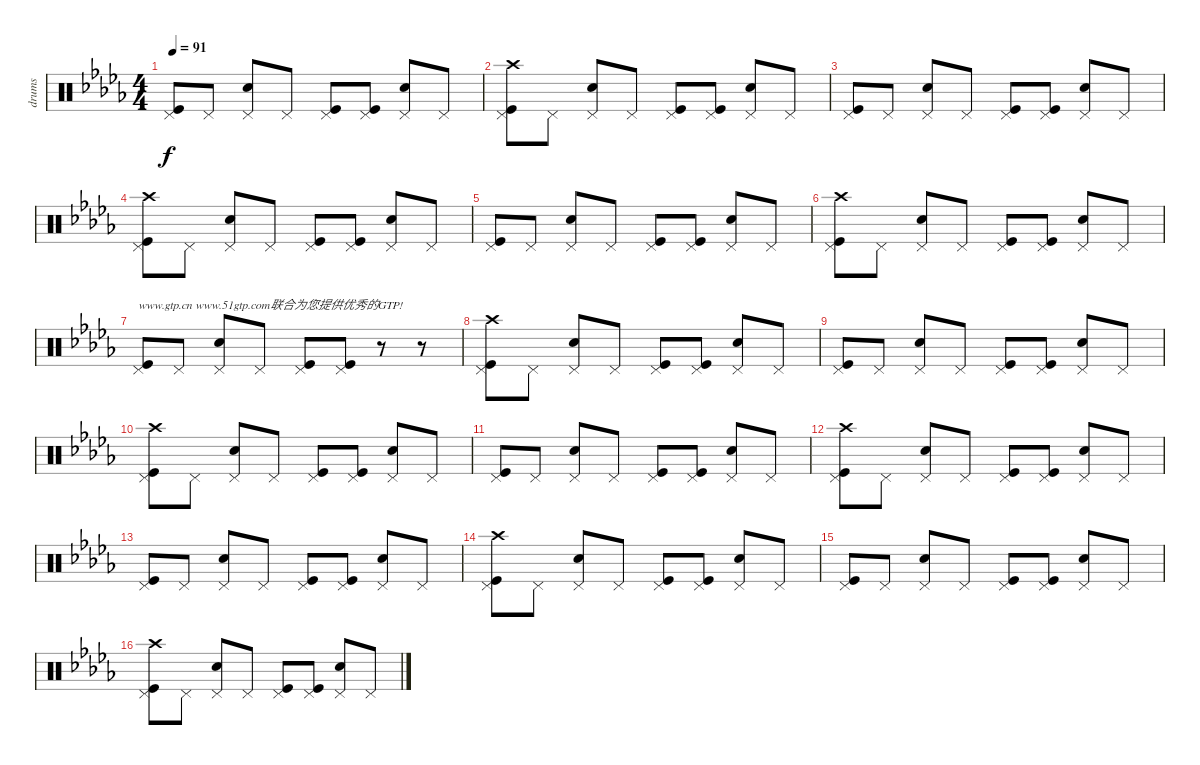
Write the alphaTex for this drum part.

\track ("drums" "drums") {instrument percussion}
\staff {score}
\articulation defaults
\ts (4 4)
\tempo 91
\clef neutral
\ks db
("Pedal Hi-Hat (hit)" "Kick (hit)").8{dy f} "Pedal Hi-Hat (hit)".8 ("Pedal Hi-Hat (hit)" "Snare (hit) 2").8 "Pedal Hi-Hat (hit)".8 ("Pedal Hi-Hat (hit)" "Kick (hit)").8 ("Pedal Hi-Hat (hit)" "Kick (hit)").8 ("Pedal Hi-Hat (hit)" "Snare (hit) 2").8 "Pedal Hi-Hat (hit)".8 |
("Crash high (hit)" "Pedal Hi-Hat (hit)" "Kick (hit)").8 "Pedal Hi-Hat (hit)".8 ("Pedal Hi-Hat (hit)" "Electric Snare (hit)").8 "Pedal Hi-Hat (hit)".8 ("Pedal Hi-Hat (hit)" "Kick (hit)").8 ("Pedal Hi-Hat (hit)" "Kick (hit)").8 ("Pedal Hi-Hat (hit)" "Electric Snare (hit)").8 "Pedal Hi-Hat (hit)".8 |
("Pedal Hi-Hat (hit)" "Kick (hit)").8 "Pedal Hi-Hat (hit)".8 ("Pedal Hi-Hat (hit)" "Snare (hit) 2").8 "Pedal Hi-Hat (hit)".8 ("Pedal Hi-Hat (hit)" "Kick (hit)").8 ("Pedal Hi-Hat (hit)" "Kick (hit)").8 ("Pedal Hi-Hat (hit)" "Snare (hit) 2").8 "Pedal Hi-Hat (hit)".8 |
("Crash high (hit)" "Pedal Hi-Hat (hit)" "Kick (hit)").8 "Pedal Hi-Hat (hit)".8 ("Pedal Hi-Hat (hit)" "Electric Snare (hit)").8 "Pedal Hi-Hat (hit)".8 ("Pedal Hi-Hat (hit)" "Kick (hit)").8 ("Pedal Hi-Hat (hit)" "Kick (hit)").8 ("Pedal Hi-Hat (hit)" "Electric Snare (hit)").8 "Pedal Hi-Hat (hit)".8 |
("Pedal Hi-Hat (hit)" "Kick (hit)").8 "Pedal Hi-Hat (hit)".8 ("Pedal Hi-Hat (hit)" "Snare (hit) 2").8 "Pedal Hi-Hat (hit)".8 ("Pedal Hi-Hat (hit)" "Kick (hit)").8 ("Pedal Hi-Hat (hit)" "Kick (hit)").8 ("Pedal Hi-Hat (hit)" "Snare (hit) 2").8 "Pedal Hi-Hat (hit)".8 |
("Crash high (hit)" "Pedal Hi-Hat (hit)" "Kick (hit)").8 "Pedal Hi-Hat (hit)".8 ("Pedal Hi-Hat (hit)" "Electric Snare (hit)").8 "Pedal Hi-Hat (hit)".8 ("Pedal Hi-Hat (hit)" "Kick (hit)").8 ("Pedal Hi-Hat (hit)" "Kick (hit)").8 ("Pedal Hi-Hat (hit)" "Electric Snare (hit)").8 "Pedal Hi-Hat (hit)".8 |
("Pedal Hi-Hat (hit)" "Kick (hit)").8{txt "www.gtp.cn www.51gtp.com联合为您提供优秀的GTP!"} "Pedal Hi-Hat (hit)".8 ("Pedal Hi-Hat (hit)" "Snare (hit) 2").8 "Pedal Hi-Hat (hit)".8 ("Pedal Hi-Hat (hit)" "Kick (hit)").8 ("Pedal Hi-Hat (hit)" "Kick (hit)").8 r.8 r.8 |
("Crash high (hit)" "Pedal Hi-Hat (hit)" "Kick (hit)").8 "Pedal Hi-Hat (hit)".8 ("Pedal Hi-Hat (hit)" "Electric Snare (hit)").8 "Pedal Hi-Hat (hit)".8 ("Pedal Hi-Hat (hit)" "Kick (hit)").8 ("Pedal Hi-Hat (hit)" "Kick (hit)").8 ("Pedal Hi-Hat (hit)" "Electric Snare (hit)").8 "Pedal Hi-Hat (hit)".8 |
("Pedal Hi-Hat (hit)" "Kick (hit)").8 "Pedal Hi-Hat (hit)".8 ("Pedal Hi-Hat (hit)" "Snare (hit) 2").8 "Pedal Hi-Hat (hit)".8 ("Pedal Hi-Hat (hit)" "Kick (hit)").8 ("Pedal Hi-Hat (hit)" "Kick (hit)").8 ("Pedal Hi-Hat (hit)" "Snare (hit) 2").8 "Pedal Hi-Hat (hit)".8 |
("Crash high (hit)" "Pedal Hi-Hat (hit)" "Kick (hit)").8 "Pedal Hi-Hat (hit)".8 ("Pedal Hi-Hat (hit)" "Electric Snare (hit)").8 "Pedal Hi-Hat (hit)".8 ("Pedal Hi-Hat (hit)" "Kick (hit)").8 ("Pedal Hi-Hat (hit)" "Kick (hit)").8 ("Pedal Hi-Hat (hit)" "Electric Snare (hit)").8 "Pedal Hi-Hat (hit)".8 |
("Pedal Hi-Hat (hit)" "Kick (hit)").8 "Pedal Hi-Hat (hit)".8 ("Pedal Hi-Hat (hit)" "Snare (hit) 2").8 "Pedal Hi-Hat (hit)".8 ("Pedal Hi-Hat (hit)" "Kick (hit)").8 ("Pedal Hi-Hat (hit)" "Kick (hit)").8 ("Pedal Hi-Hat (hit)" "Snare (hit) 2").8 "Pedal Hi-Hat (hit)".8 |
("Crash high (hit)" "Pedal Hi-Hat (hit)" "Kick (hit)").8 "Pedal Hi-Hat (hit)".8 ("Pedal Hi-Hat (hit)" "Electric Snare (hit)").8 "Pedal Hi-Hat (hit)".8 ("Pedal Hi-Hat (hit)" "Kick (hit)").8 ("Pedal Hi-Hat (hit)" "Kick (hit)").8 ("Pedal Hi-Hat (hit)" "Electric Snare (hit)").8 "Pedal Hi-Hat (hit)".8 |
("Pedal Hi-Hat (hit)" "Kick (hit)").8 "Pedal Hi-Hat (hit)".8 ("Pedal Hi-Hat (hit)" "Snare (hit) 2").8 "Pedal Hi-Hat (hit)".8 ("Pedal Hi-Hat (hit)" "Kick (hit)").8 ("Pedal Hi-Hat (hit)" "Kick (hit)").8 ("Pedal Hi-Hat (hit)" "Snare (hit) 2").8 "Pedal Hi-Hat (hit)".8 |
("Crash high (hit)" "Pedal Hi-Hat (hit)" "Kick (hit)").8 "Pedal Hi-Hat (hit)".8 ("Pedal Hi-Hat (hit)" "Electric Snare (hit)").8 "Pedal Hi-Hat (hit)".8 ("Pedal Hi-Hat (hit)" "Kick (hit)").8 ("Pedal Hi-Hat (hit)" "Kick (hit)").8 ("Pedal Hi-Hat (hit)" "Electric Snare (hit)").8 "Pedal Hi-Hat (hit)".8 |
("Pedal Hi-Hat (hit)" "Kick (hit)").8 "Pedal Hi-Hat (hit)".8 ("Pedal Hi-Hat (hit)" "Snare (hit) 2").8 "Pedal Hi-Hat (hit)".8 ("Pedal Hi-Hat (hit)" "Kick (hit)").8 ("Pedal Hi-Hat (hit)" "Kick (hit)").8 ("Pedal Hi-Hat (hit)" "Snare (hit) 2").8 "Pedal Hi-Hat (hit)".8 |
("Crash high (hit)" "Pedal Hi-Hat (hit)" "Kick (hit)").8 "Pedal Hi-Hat (hit)".8 ("Pedal Hi-Hat (hit)" "Electric Snare (hit)").8 "Pedal Hi-Hat (hit)".8 ("Pedal Hi-Hat (hit)" "Kick (hit)").8 ("Pedal Hi-Hat (hit)" "Kick (hit)").8 ("Pedal Hi-Hat (hit)" "Electric Snare (hit)").8 "Pedal Hi-Hat (hit)".8
